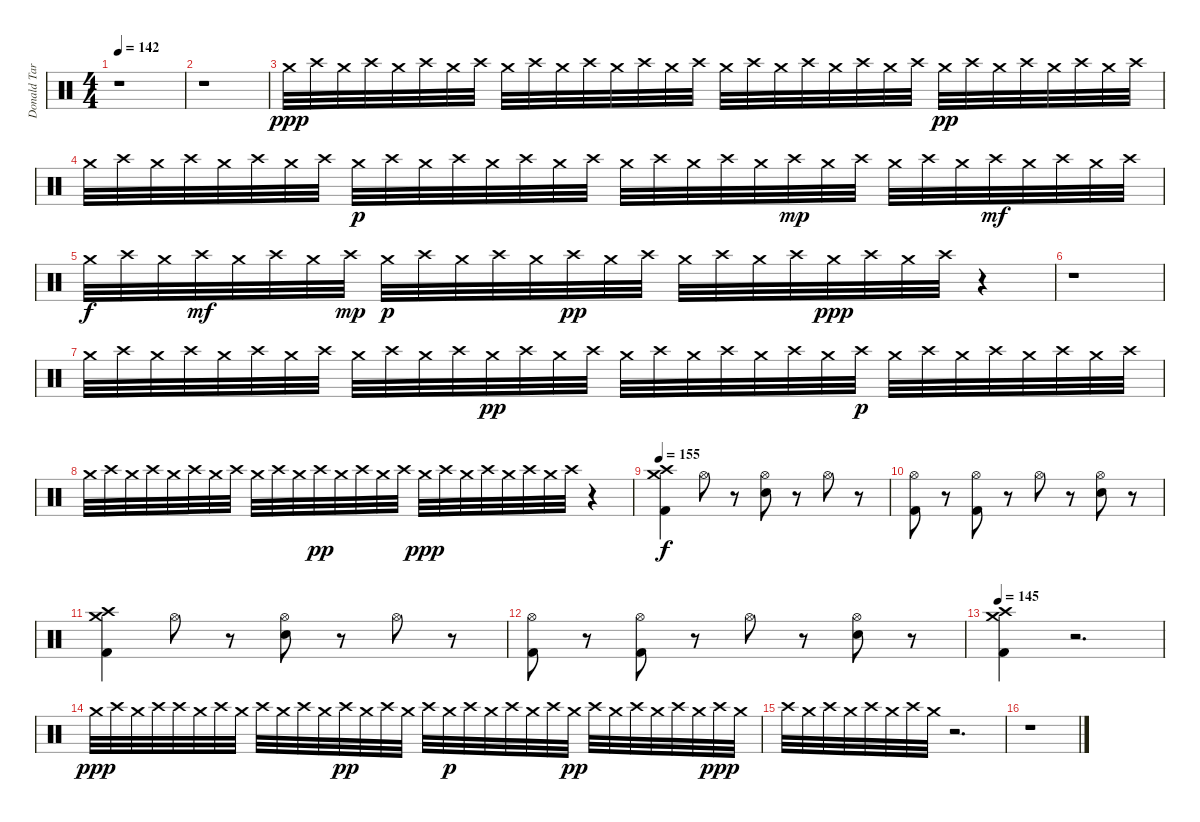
\track ("Donald Tardy (Drums)" "Donald Tar") {instrument percussion}
\staff {score}
\articulation defaults
\ts (4 4)
\tempo 142
\clef neutral
\ks c
r.1{dy ppp} |
r.1 |
"Crash medium (hit)".32 "Crash high (hit)".32 "Crash medium (hit)".32 "Crash high (hit)".32 "Crash medium (hit)".32 "Crash high (hit)".32 "Crash medium (hit)".32 "Crash high (hit)".32 "Crash medium (hit)".32 "Crash high (hit)".32 "Crash medium (hit)".32 "Crash high (hit)".32 "Crash medium (hit)".32 "Crash high (hit)".32 "Crash medium (hit)".32 "Crash high (hit)".32 "Crash medium (hit)".32 "Crash high (hit)".32 "Crash medium (hit)".32 "Crash high (hit)".32 "Crash medium (hit)".32 "Crash high (hit)".32 "Crash medium (hit)".32 "Crash high (hit)".32 "Crash medium (hit)".32{dy pp} "Crash high (hit)".32 "Crash medium (hit)".32 "Crash high (hit)".32 "Crash medium (hit)".32 "Crash high (hit)".32 "Crash medium (hit)".32 "Crash high (hit)".32 |
"Crash medium (hit)".32 "Crash high (hit)".32 "Crash medium (hit)".32 "Crash high (hit)".32 "Crash medium (hit)".32 "Crash high (hit)".32 "Crash medium (hit)".32 "Crash high (hit)".32 "Crash medium (hit)".32{dy p} "Crash high (hit)".32 "Crash medium (hit)".32 "Crash high (hit)".32 "Crash medium (hit)".32 "Crash high (hit)".32 "Crash medium (hit)".32 "Crash high (hit)".32 "Crash medium (hit)".32 "Crash high (hit)".32 "Crash medium (hit)".32 "Crash high (hit)".32 "Crash medium (hit)".32 "Crash high (hit)".32{dy mp} "Crash medium (hit)".32 "Crash high (hit)".32 "Crash medium (hit)".32 "Crash high (hit)".32 "Crash medium (hit)".32 "Crash high (hit)".32{dy mf} "Crash medium (hit)".32 "Crash high (hit)".32 "Crash medium (hit)".32 "Crash high (hit)".32 |
"Crash medium (hit)".32{dy f} "Crash high (hit)".32 "Crash medium (hit)".32 "Crash high (hit)".32{dy mf} "Crash medium (hit)".32 "Crash high (hit)".32 "Crash medium (hit)".32 "Crash high (hit)".32{dy mp} "Crash medium (hit)".32{dy p} "Crash high (hit)".32 "Crash medium (hit)".32 "Crash high (hit)".32 "Crash medium (hit)".32 "Crash high (hit)".32{dy pp} "Crash medium (hit)".32 "Crash high (hit)".32 "Crash medium (hit)".32 "Crash high (hit)".32 "Crash medium (hit)".32 "Crash high (hit)".32 "Crash medium (hit)".32{dy ppp} "Crash high (hit)".32 "Crash medium (hit)".32 "Crash high (hit)".32 r.4 |
r.1 |
"Crash medium (hit)".32 "Crash high (hit)".32 "Crash medium (hit)".32 "Crash high (hit)".32 "Crash medium (hit)".32 "Crash high (hit)".32 "Crash medium (hit)".32 "Crash high (hit)".32 "Crash medium (hit)".32 "Crash high (hit)".32 "Crash medium (hit)".32 "Crash high (hit)".32 "Crash medium (hit)".32{dy pp} "Crash high (hit)".32 "Crash medium (hit)".32 "Crash high (hit)".32 "Crash medium (hit)".32 "Crash high (hit)".32 "Crash medium (hit)".32 "Crash high (hit)".32 "Crash medium (hit)".32 "Crash high (hit)".32 "Crash medium (hit)".32 "Crash high (hit)".32{dy p} "Crash medium (hit)".32 "Crash high (hit)".32 "Crash medium (hit)".32 "Crash high (hit)".32 "Crash medium (hit)".32 "Crash high (hit)".32 "Crash medium (hit)".32 "Crash high (hit)".32 |
"Crash medium (hit)".32 "Crash high (hit)".32 "Crash medium (hit)".32 "Crash high (hit)".32 "Crash medium (hit)".32 "Crash high (hit)".32 "Crash medium (hit)".32 "Crash high (hit)".32 "Crash medium (hit)".32 "Crash high (hit)".32 "Crash medium (hit)".32 "Crash high (hit)".32{dy pp} "Crash medium (hit)".32 "Crash high (hit)".32 "Crash medium (hit)".32 "Crash high (hit)".32 "Crash medium (hit)".32{dy ppp} "Crash high (hit)".32 "Crash medium (hit)".32 "Crash high (hit)".32 "Crash medium (hit)".32 "Crash high (hit)".32 "Crash medium (hit)".32 "Crash high (hit)".32 r.4 |
\tempo 155
("Kick (hit) 2" "Crash medium (hit)" "Crash high (hit)").4{dy f} "Hi-Hat (open)".8 r.8 ("Electric Snare (hit)" "Hi-Hat (open)").8 r.8 "Hi-Hat (open)".8 r.8 |
("Kick (hit) 2" "Hi-Hat (open)").8 r.8 ("Kick (hit) 2" "Hi-Hat (open)").8 r.8 "Hi-Hat (open)".8 r.8 ("Electric Snare (hit)" "Hi-Hat (open)").8 r.8 |
("Kick (hit) 2" "Crash medium (hit)" "Crash high (hit)").4 "Hi-Hat (open)".8 r.8 ("Electric Snare (hit)" "Hi-Hat (open)").8 r.8 "Hi-Hat (open)".8 r.8 |
("Kick (hit) 2" "Hi-Hat (open)").8 r.8 ("Kick (hit) 2" "Hi-Hat (open)").8 r.8 "Hi-Hat (open)".8 r.8 ("Electric Snare (hit)" "Hi-Hat (open)").8 r.8 |
\tempo 145
("Kick (hit) 2" "Crash medium (hit)" "Crash high (hit)").4 r.2{d} |
"Crash medium (hit)".32{dy ppp} "Crash high (hit)".32 "Crash medium (hit)".32 "Crash high (hit)".32 "Crash high (hit)".32 "Crash medium (hit)".32 "Crash high (hit)".32 "Crash medium (hit)".32 "Crash high (hit)".32 "Crash medium (hit)".32 "Crash high (hit)".32 "Crash medium (hit)".32 "Crash high (hit)".32{dy pp} "Crash medium (hit)".32 "Crash high (hit)".32 "Crash medium (hit)".32 "Crash high (hit)".32 "Crash medium (hit)".32{dy p} "Crash high (hit)".32 "Crash medium (hit)".32 "Crash high (hit)".32 "Crash medium (hit)".32 "Crash high (hit)".32 "Crash medium (hit)".32{dy pp} "Crash high (hit)".32 "Crash medium (hit)".32 "Crash high (hit)".32 "Crash medium (hit)".32 "Crash high (hit)".32 "Crash medium (hit)".32 "Crash high (hit)".32{dy ppp} "Crash medium (hit)".32 |
"Crash high (hit)".32 "Crash medium (hit)".32 "Crash high (hit)".32 "Crash medium (hit)".32 "Crash high (hit)".32 "Crash medium (hit)".32 "Crash high (hit)".32 "Crash medium (hit)".32 r.2{d} |
r.1
